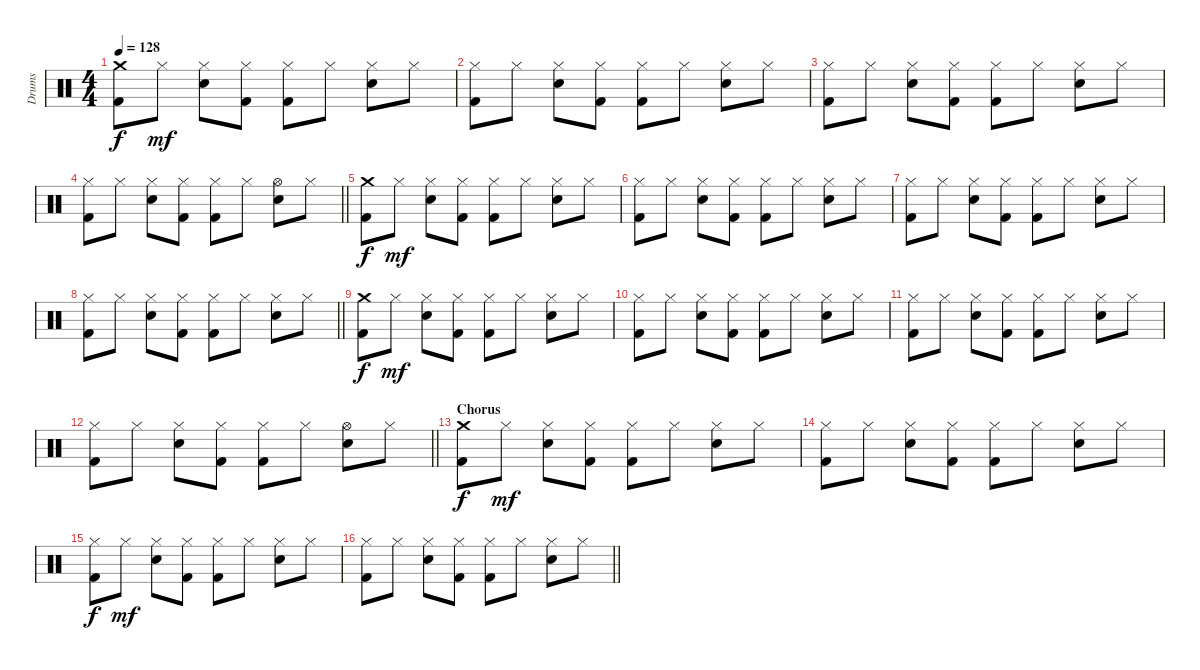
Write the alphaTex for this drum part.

\track ("Drums" "Drums") {instrument percussion}
\staff {score}
\articulation defaults
\ts (4 4)
\tempo 128
\clef neutral
\ks c
("Crash medium (hit)" "Kick (hit) 2").8{dy f} "Hi-Hat (closed)".8{dy mf} ("Hi-Hat (closed)" "Snare (hit) 2").8 ("Hi-Hat (closed)" "Kick (hit) 2").8 ("Hi-Hat (closed)" "Kick (hit) 2").8 "Hi-Hat (closed)".8 ("Hi-Hat (closed)" "Snare (hit) 2").8 "Hi-Hat (closed)".8 |
("Hi-Hat (closed)" "Kick (hit) 2").8 "Hi-Hat (closed)".8 ("Hi-Hat (closed)" "Snare (hit) 2").8 ("Hi-Hat (closed)" "Kick (hit) 2").8 ("Hi-Hat (closed)" "Kick (hit) 2").8 "Hi-Hat (closed)".8 ("Hi-Hat (closed)" "Snare (hit) 2").8 "Hi-Hat (closed)".8 |
("Hi-Hat (closed)" "Kick (hit) 2").8 "Hi-Hat (closed)".8 ("Hi-Hat (closed)" "Snare (hit) 2").8 ("Hi-Hat (closed)" "Kick (hit) 2").8 ("Hi-Hat (closed)" "Kick (hit) 2").8 "Hi-Hat (closed)".8 ("Hi-Hat (closed)" "Snare (hit) 2").8 "Hi-Hat (closed)".8 |
\barLineRight lightlight
("Hi-Hat (closed)" "Kick (hit) 2").8 "Hi-Hat (closed)".8 ("Hi-Hat (closed)" "Snare (hit) 2").8 ("Hi-Hat (closed)" "Kick (hit) 2").8 ("Hi-Hat (closed)" "Kick (hit) 2").8 "Hi-Hat (closed)".8 ("Hi-Hat (open)" "Snare (hit) 2").8 "Hi-Hat (closed)".8 |
("Crash medium (hit)" "Kick (hit) 2").8{dy f} "Hi-Hat (closed)".8{dy mf} ("Hi-Hat (closed)" "Snare (hit) 2").8 ("Hi-Hat (closed)" "Kick (hit) 2").8 ("Hi-Hat (closed)" "Kick (hit) 2").8 "Hi-Hat (closed)".8 ("Hi-Hat (closed)" "Snare (hit) 2").8 "Hi-Hat (closed)".8 |
("Hi-Hat (closed)" "Kick (hit) 2").8 "Hi-Hat (closed)".8 ("Hi-Hat (closed)" "Snare (hit) 2").8 ("Hi-Hat (closed)" "Kick (hit) 2").8 ("Hi-Hat (closed)" "Kick (hit) 2").8 "Hi-Hat (closed)".8 ("Hi-Hat (closed)" "Snare (hit) 2").8 "Hi-Hat (closed)".8 |
("Hi-Hat (closed)" "Kick (hit) 2").8 "Hi-Hat (closed)".8 ("Hi-Hat (closed)" "Snare (hit) 2").8 ("Hi-Hat (closed)" "Kick (hit) 2").8 ("Hi-Hat (closed)" "Kick (hit) 2").8 "Hi-Hat (closed)".8 ("Hi-Hat (closed)" "Snare (hit) 2").8 "Hi-Hat (closed)".8 |
\barLineRight lightlight
("Hi-Hat (closed)" "Kick (hit) 2").8 "Hi-Hat (closed)".8 ("Hi-Hat (closed)" "Snare (hit) 2").8 ("Hi-Hat (closed)" "Kick (hit) 2").8 ("Hi-Hat (closed)" "Kick (hit) 2").8 "Hi-Hat (closed)".8 ("Hi-Hat (closed)" "Snare (hit) 2").8 "Hi-Hat (closed)".8 |
("Crash medium (hit)" "Kick (hit) 2").8{dy f} "Hi-Hat (closed)".8{dy mf} ("Hi-Hat (closed)" "Snare (hit) 2").8 ("Hi-Hat (closed)" "Kick (hit) 2").8 ("Hi-Hat (closed)" "Kick (hit) 2").8 "Hi-Hat (closed)".8 ("Hi-Hat (closed)" "Snare (hit) 2").8 "Hi-Hat (closed)".8 |
("Hi-Hat (closed)" "Kick (hit) 2").8 "Hi-Hat (closed)".8 ("Hi-Hat (closed)" "Snare (hit) 2").8 ("Hi-Hat (closed)" "Kick (hit) 2").8 ("Hi-Hat (closed)" "Kick (hit) 2").8 "Hi-Hat (closed)".8 ("Hi-Hat (closed)" "Snare (hit) 2").8 "Hi-Hat (closed)".8 |
("Hi-Hat (closed)" "Kick (hit) 2").8 "Hi-Hat (closed)".8 ("Hi-Hat (closed)" "Snare (hit) 2").8 ("Hi-Hat (closed)" "Kick (hit) 2").8 ("Hi-Hat (closed)" "Kick (hit) 2").8 "Hi-Hat (closed)".8 ("Hi-Hat (closed)" "Snare (hit) 2").8 "Hi-Hat (closed)".8 |
\barLineRight lightlight
("Hi-Hat (closed)" "Kick (hit) 2").8 "Hi-Hat (closed)".8 ("Hi-Hat (closed)" "Snare (hit) 2").8 ("Hi-Hat (closed)" "Kick (hit) 2").8 ("Hi-Hat (closed)" "Kick (hit) 2").8 "Hi-Hat (closed)".8 ("Hi-Hat (open)" "Snare (hit) 2").8 "Hi-Hat (closed)".8 |
\section ("" "Chorus")
("Crash medium (hit)" "Kick (hit) 2").8{dy f} "Hi-Hat (closed)".8{dy mf} ("Hi-Hat (closed)" "Snare (hit) 2").8 ("Hi-Hat (closed)" "Kick (hit) 2").8 ("Hi-Hat (closed)" "Kick (hit) 2").8 "Hi-Hat (closed)".8 ("Hi-Hat (closed)" "Snare (hit) 2").8 "Hi-Hat (closed)".8 |
("Hi-Hat (closed)" "Kick (hit) 2").8 "Hi-Hat (closed)".8 ("Hi-Hat (closed)" "Snare (hit) 2").8 ("Hi-Hat (closed)" "Kick (hit) 2").8 ("Hi-Hat (closed)" "Kick (hit) 2").8 "Hi-Hat (closed)".8 ("Hi-Hat (closed)" "Snare (hit) 2").8 "Hi-Hat (closed)".8 |
("Hi-Hat (closed)" "Kick (hit) 2").8{dy f} "Hi-Hat (closed)".8{dy mf} ("Hi-Hat (closed)" "Snare (hit) 2").8 ("Hi-Hat (closed)" "Kick (hit) 2").8 ("Hi-Hat (closed)" "Kick (hit) 2").8 "Hi-Hat (closed)".8 ("Hi-Hat (closed)" "Snare (hit) 2").8 "Hi-Hat (closed)".8 |
\barLineRight lightlight
("Hi-Hat (closed)" "Kick (hit) 2").8 "Hi-Hat (closed)".8 ("Hi-Hat (closed)" "Snare (hit) 2").8 ("Hi-Hat (closed)" "Kick (hit) 2").8 ("Hi-Hat (closed)" "Kick (hit) 2").8 "Hi-Hat (closed)".8 ("Hi-Hat (closed)" "Snare (hit) 2").8 "Hi-Hat (closed)".8
